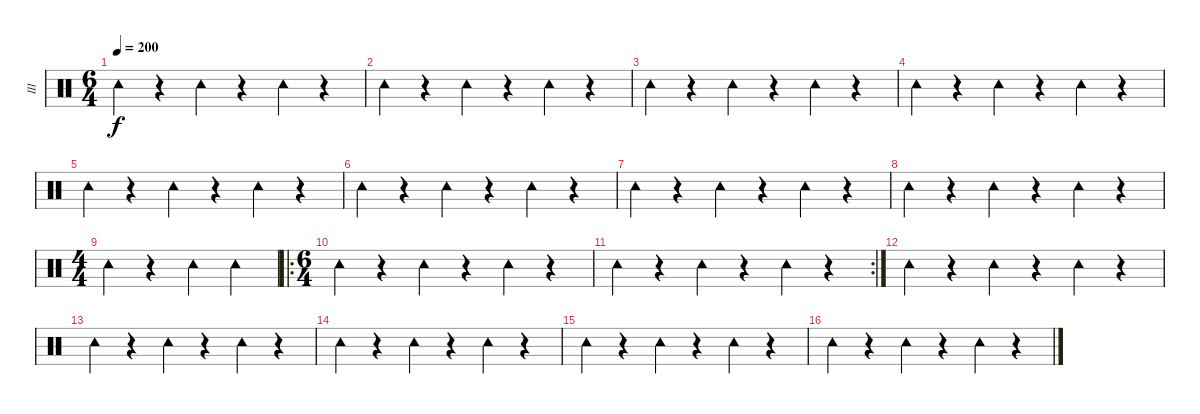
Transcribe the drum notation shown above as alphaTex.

\track ("III" "III") {instrument percussion}
\staff {score}
\articulation defaults
\ts (6 4)
\tempo 200
\clef neutral
\ks c "Tambourine (hit)".4{dy f}
r.4 "Tambourine (hit)".4 r.4 "Tambourine (hit)".4 r.4 |
"Tambourine (hit)".4 r.4 "Tambourine (hit)".4 r.4 "Tambourine (hit)".4 r.4 |
"Tambourine (hit)".4 r.4 "Tambourine (hit)".4 r.4 "Tambourine (hit)".4 r.4 |
"Tambourine (hit)".4 r.4 "Tambourine (hit)".4 r.4 "Tambourine (hit)".4 r.4 |
"Tambourine (hit)".4 r.4 "Tambourine (hit)".4 r.4 "Tambourine (hit)".4 r.4 |
"Tambourine (hit)".4 r.4 "Tambourine (hit)".4 r.4 "Tambourine (hit)".4 r.4 |
"Tambourine (hit)".4 r.4 "Tambourine (hit)".4 r.4 "Tambourine (hit)".4 r.4 |
"Tambourine (hit)".4 r.4 "Tambourine (hit)".4 r.4 "Tambourine (hit)".4 r.4 |
\ts (4 4)
"Tambourine (hit)".4 r.4 "Tambourine (hit)".4 "Tambourine (hit)".4 |
\ro
\ts (6 4)
"Tambourine (hit)".4 r.4 "Tambourine (hit)".4 r.4 "Tambourine (hit)".4 r.4 |
\rc 2 "Tambourine (hit)".4
r.4 "Tambourine (hit)".4 r.4 "Tambourine (hit)".4 r.4 |
"Tambourine (hit)".4 r.4 "Tambourine (hit)".4 r.4 "Tambourine (hit)".4 r.4 |
"Tambourine (hit)".4 r.4 "Tambourine (hit)".4 r.4 "Tambourine (hit)".4 r.4 |
"Tambourine (hit)".4 r.4 "Tambourine (hit)".4 r.4 "Tambourine (hit)".4 r.4 |
"Tambourine (hit)".4 r.4 "Tambourine (hit)".4 r.4 "Tambourine (hit)".4 r.4 |
"Tambourine (hit)".4 r.4 "Tambourine (hit)".4 r.4 "Tambourine (hit)".4 r.4
